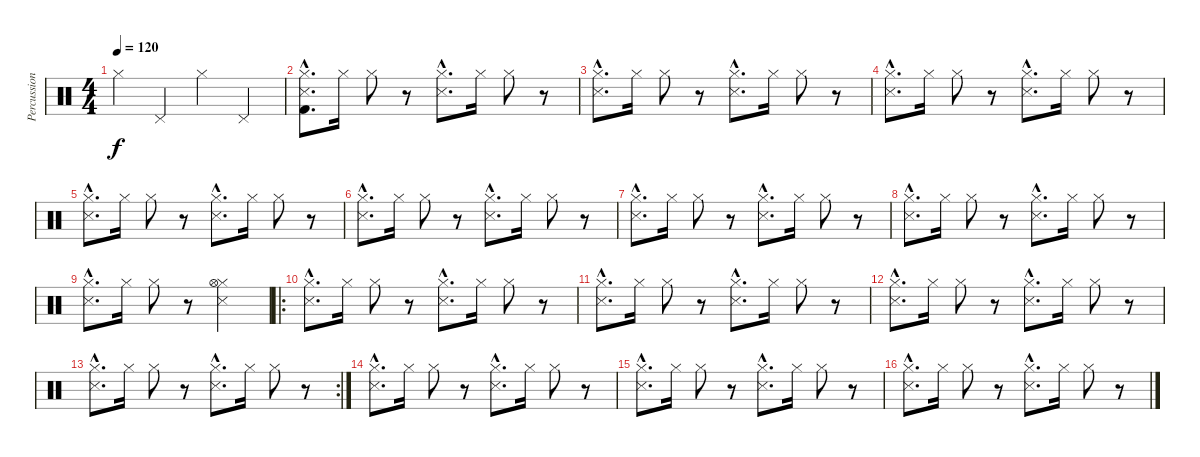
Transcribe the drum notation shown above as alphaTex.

\track ("Percussions" "Percussion") {instrument percussion}
\staff {score}
\articulation defaults
\ts (4 4)
\tempo 120
\clef neutral
\ks c "Hi-Hat (closed)".4{dy f} "Pedal Hi-Hat (hit)".4 "Hi-Hat (closed)".4 "Pedal Hi-Hat (hit)".4
|
("Hi-Hat (closed)"{hac} "Kick (hit) 2"{hac} "Metronome (hit)"{hac}).8{d} "Hi-Hat (closed)".16 "Hi-Hat (closed)".8 r.8 ("Metronome (hit)"{hac} "Hi-Hat (closed)"{hac}).8{d} "Hi-Hat (closed)".16 "Hi-Hat (closed)".8 r.8 |
("Metronome (hit)"{hac} "Hi-Hat (closed)"{hac}).8{d} "Hi-Hat (closed)".16 "Hi-Hat (closed)".8 r.8 ("Metronome (hit)"{hac} "Hi-Hat (closed)"{hac}).8{d} "Hi-Hat (closed)".16 "Hi-Hat (closed)".8 r.8 |
("Metronome (hit)"{hac} "Hi-Hat (closed)"{hac}).8{d} "Hi-Hat (closed)".16 "Hi-Hat (closed)".8 r.8 ("Metronome (hit)"{hac} "Hi-Hat (closed)"{hac}).8{d} "Hi-Hat (closed)".16 "Hi-Hat (closed)".8 r.8 |
("Metronome (hit)"{hac} "Hi-Hat (closed)"{hac}).8{d} "Hi-Hat (closed)".16 "Hi-Hat (closed)".8 r.8 ("Metronome (hit)"{hac} "Hi-Hat (closed)"{hac}).8{d} "Hi-Hat (closed)".16 "Hi-Hat (closed)".8 r.8 |
("Metronome (hit)"{hac} "Hi-Hat (closed)"{hac}).8{d} "Hi-Hat (closed)".16 "Hi-Hat (closed)".8 r.8 ("Metronome (hit)"{hac} "Hi-Hat (closed)"{hac}).8{d} "Hi-Hat (closed)".16 "Hi-Hat (closed)".8 r.8 |
("Metronome (hit)"{hac} "Hi-Hat (closed)"{hac}).8{d} "Hi-Hat (closed)".16 "Hi-Hat (closed)".8 r.8 ("Metronome (hit)"{hac} "Hi-Hat (closed)"{hac}).8{d} "Hi-Hat (closed)".16 "Hi-Hat (closed)".8 r.8 |
("Metronome (hit)"{hac} "Hi-Hat (closed)"{hac}).8{d} "Hi-Hat (closed)".16 "Hi-Hat (closed)".8 r.8 ("Metronome (hit)"{hac} "Hi-Hat (closed)"{hac}).8{d} "Hi-Hat (closed)".16 "Hi-Hat (closed)".8 r.8 |
("Metronome (hit)"{hac} "Hi-Hat (closed)"{hac}).8{d} "Hi-Hat (closed)".16 "Hi-Hat (closed)".8 r.8 ("Metronome (hit)" "Hi-Hat (closed)" "Hi-Hat (open)").2 |
\ro
("Metronome (hit)"{hac} "Hi-Hat (closed)"{hac}).8{d} "Hi-Hat (closed)".16 "Hi-Hat (closed)".8 r.8 ("Metronome (hit)"{hac} "Hi-Hat (closed)"{hac}).8{d} "Hi-Hat (closed)".16 "Hi-Hat (closed)".8 r.8 |
("Metronome (hit)"{hac} "Hi-Hat (closed)"{hac}).8{d} "Hi-Hat (closed)".16 "Hi-Hat (closed)".8 r.8 ("Metronome (hit)"{hac} "Hi-Hat (closed)"{hac}).8{d} "Hi-Hat (closed)".16 "Hi-Hat (closed)".8 r.8 |
("Metronome (hit)"{hac} "Hi-Hat (closed)"{hac}).8{d} "Hi-Hat (closed)".16 "Hi-Hat (closed)".8 r.8 ("Metronome (hit)"{hac} "Hi-Hat (closed)"{hac}).8{d} "Hi-Hat (closed)".16 "Hi-Hat (closed)".8 r.8 |
\rc 2
("Metronome (hit)"{hac} "Hi-Hat (closed)"{hac}).8{d} "Hi-Hat (closed)".16 "Hi-Hat (closed)".8 r.8 ("Metronome (hit)"{hac} "Hi-Hat (closed)"{hac}).8{d} "Hi-Hat (closed)".16 "Hi-Hat (closed)".8 r.8 |
("Metronome (hit)"{hac} "Hi-Hat (closed)"{hac}).8{d} "Hi-Hat (closed)".16 "Hi-Hat (closed)".8 r.8 ("Metronome (hit)"{hac} "Hi-Hat (closed)"{hac}).8{d} "Hi-Hat (closed)".16 "Hi-Hat (closed)".8 r.8 |
("Metronome (hit)"{hac} "Hi-Hat (closed)"{hac}).8{d} "Hi-Hat (closed)".16 "Hi-Hat (closed)".8 r.8 ("Metronome (hit)"{hac} "Hi-Hat (closed)"{hac}).8{d} "Hi-Hat (closed)".16 "Hi-Hat (closed)".8 r.8 |
("Metronome (hit)"{hac} "Hi-Hat (closed)"{hac}).8{d} "Hi-Hat (closed)".16 "Hi-Hat (closed)".8 r.8 ("Metronome (hit)"{hac} "Hi-Hat (closed)"{hac}).8{d} "Hi-Hat (closed)".16 "Hi-Hat (closed)".8 r.8
